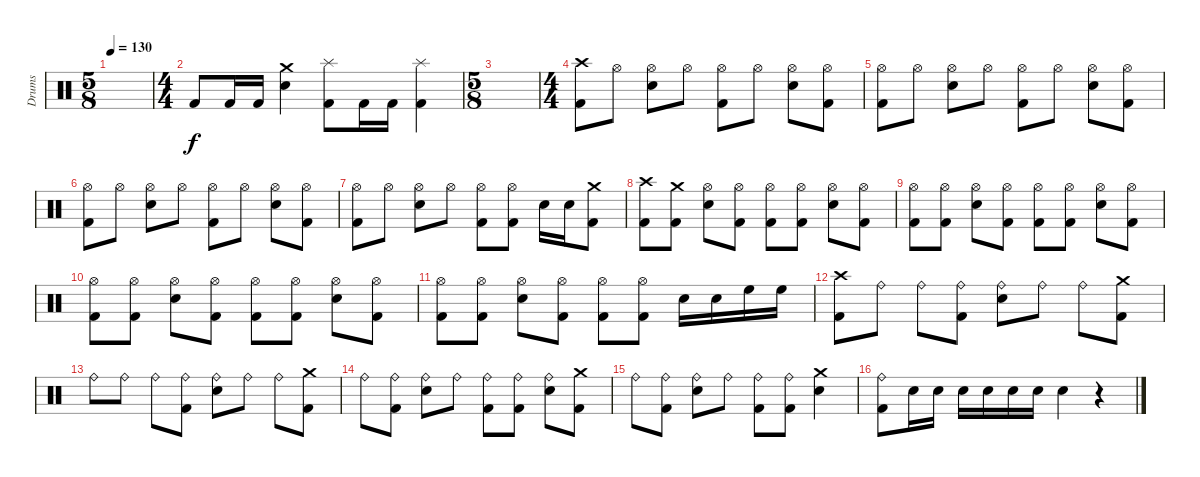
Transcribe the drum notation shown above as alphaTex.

\track ("Drums" "Drums") {instrument percussion}
\staff {score}
\articulation defaults
\ts (5 8)
\tempo 130
\clef neutral
\ks c
|
\ts (4 4)
"Kick (hit) 2".8 "Kick (hit) 2".16 "Kick (hit) 2".16 ("Crash medium (hit)" "Electric Snare (hit)").4 ("Splash (hit)" "Kick (hit) 2").8 "Kick (hit) 2".16 "Kick (hit) 2".16 ("Splash (hit)" "Kick (hit) 2").4 |
\ts (5 8)
|
\ts (4 4)
("Crash high (hit)" "Kick (hit) 2").8 "Hi-Hat (open)".8 ("Hi-Hat (open)" "Electric Snare (hit)").8 "Hi-Hat (open)".8 ("Hi-Hat (open)" "Kick (hit) 2").8 "Hi-Hat (open)".8 ("Hi-Hat (open)" "Electric Snare (hit)").8 ("Hi-Hat (open)" "Kick (hit) 2").8 |
("Hi-Hat (open)" "Kick (hit) 2").8 "Hi-Hat (open)".8 ("Hi-Hat (open)" "Electric Snare (hit)").8 "Hi-Hat (open)".8 ("Hi-Hat (open)" "Kick (hit) 2").8 "Hi-Hat (open)".8 ("Hi-Hat (open)" "Electric Snare (hit)").8 ("Hi-Hat (open)" "Kick (hit) 2").8 |
("Hi-Hat (open)" "Kick (hit) 2").8 "Hi-Hat (open)".8 ("Hi-Hat (open)" "Electric Snare (hit)").8 "Hi-Hat (open)".8 ("Hi-Hat (open)" "Kick (hit) 2").8 "Hi-Hat (open)".8 ("Hi-Hat (open)" "Electric Snare (hit)").8 ("Hi-Hat (open)" "Kick (hit) 2").8 |
("Hi-Hat (open)" "Kick (hit) 2").8 "Hi-Hat (open)".8 ("Hi-Hat (open)" "Electric Snare (hit)").8 "Hi-Hat (open)".8 ("Hi-Hat (open)" "Kick (hit) 2").8 ("Hi-Hat (open)" "Kick (hit) 2").8 "Electric Snare (hit)".16 "Electric Snare (hit)".16 ("Crash medium (hit)" "Kick (hit) 2").8 |
("Crash high (hit)" "Kick (hit) 2").8 ("Crash medium (hit)" "Kick (hit) 2").8 ("Hi-Hat (open)" "Electric Snare (hit)").8 ("Hi-Hat (open)" "Kick (hit) 2").8 ("Hi-Hat (open)" "Kick (hit) 2").8 ("Hi-Hat (open)" "Kick (hit) 2").8 ("Hi-Hat (open)" "Electric Snare (hit)").8 ("Hi-Hat (open)" "Kick (hit) 2").8 |
("Hi-Hat (open)" "Kick (hit) 2").8 ("Hi-Hat (open)" "Kick (hit) 2").8 ("Hi-Hat (open)" "Electric Snare (hit)").8 ("Hi-Hat (open)" "Kick (hit) 2").8 ("Hi-Hat (open)" "Kick (hit) 2").8 ("Hi-Hat (open)" "Kick (hit) 2").8 ("Hi-Hat (open)" "Electric Snare (hit)").8 ("Hi-Hat (open)" "Kick (hit) 2").8 |
("Hi-Hat (open)" "Kick (hit) 2").8 ("Hi-Hat (open)" "Kick (hit) 2").8 ("Hi-Hat (open)" "Electric Snare (hit)").8 ("Hi-Hat (open)" "Kick (hit) 2").8 ("Hi-Hat (open)" "Kick (hit) 2").8 ("Hi-Hat (open)" "Kick (hit) 2").8 ("Hi-Hat (open)" "Electric Snare (hit)").8 ("Hi-Hat (open)" "Kick (hit) 2").8 |
("Hi-Hat (open)" "Kick (hit) 2").8 ("Hi-Hat (open)" "Kick (hit) 2").8 ("Hi-Hat (open)" "Electric Snare (hit)").8 ("Hi-Hat (open)" "Kick (hit) 2").8 ("Hi-Hat (open)" "Kick (hit) 2").8 ("Hi-Hat (open)" "Kick (hit) 2").8 "Electric Snare (hit)".16 "Electric Snare (hit)".16 "High Floor Tom (hit)".16 "High Floor Tom (hit)".16 |
("Crash high (hit)" "Kick (hit) 2").8 "Ride (bell)".8 "Ride (bell)".8 ("Ride (bell)" "Kick (hit) 2").8 ("Ride (bell)" "Electric Snare (hit)").8 "Ride (bell)".8 "Ride (bell)".8 ("Crash medium (hit)" "Kick (hit) 2").8 |
"Ride (bell)".8 "Ride (bell)".8 "Ride (bell)".8 ("Ride (bell)" "Kick (hit) 2").8 ("Ride (bell)" "Electric Snare (hit)").8 "Ride (bell)".8 "Ride (bell)".8 ("Crash medium (hit)" "Kick (hit) 2").8 |
"Ride (bell)".8 ("Ride (bell)" "Kick (hit) 2").8 ("Ride (bell)" "Electric Snare (hit)").8 "Ride (bell)".8 ("Ride (bell)" "Kick (hit) 2").8 ("Ride (bell)" "Kick (hit) 2").8 ("Ride (bell)" "Electric Snare (hit)").8 ("Crash medium (hit)" "Kick (hit) 2").8 |
"Ride (bell)".8 ("Ride (bell)" "Kick (hit) 2").8 ("Ride (bell)" "Electric Snare (hit)").8 "Ride (bell)".8 ("Ride (bell)" "Kick (hit) 2").8 ("Ride (bell)" "Kick (hit) 2").8 ("Crash medium (hit)" "Electric Snare (hit)").4 |
("Ride (bell)" "Kick (hit) 2").8 "Electric Snare (hit)".16 "Electric Snare (hit)".16 "Electric Snare (hit)".16 "Electric Snare (hit)".16 "Electric Snare (hit)".16 "Electric Snare (hit)".16 "Electric Snare (hit)".4 r.4
